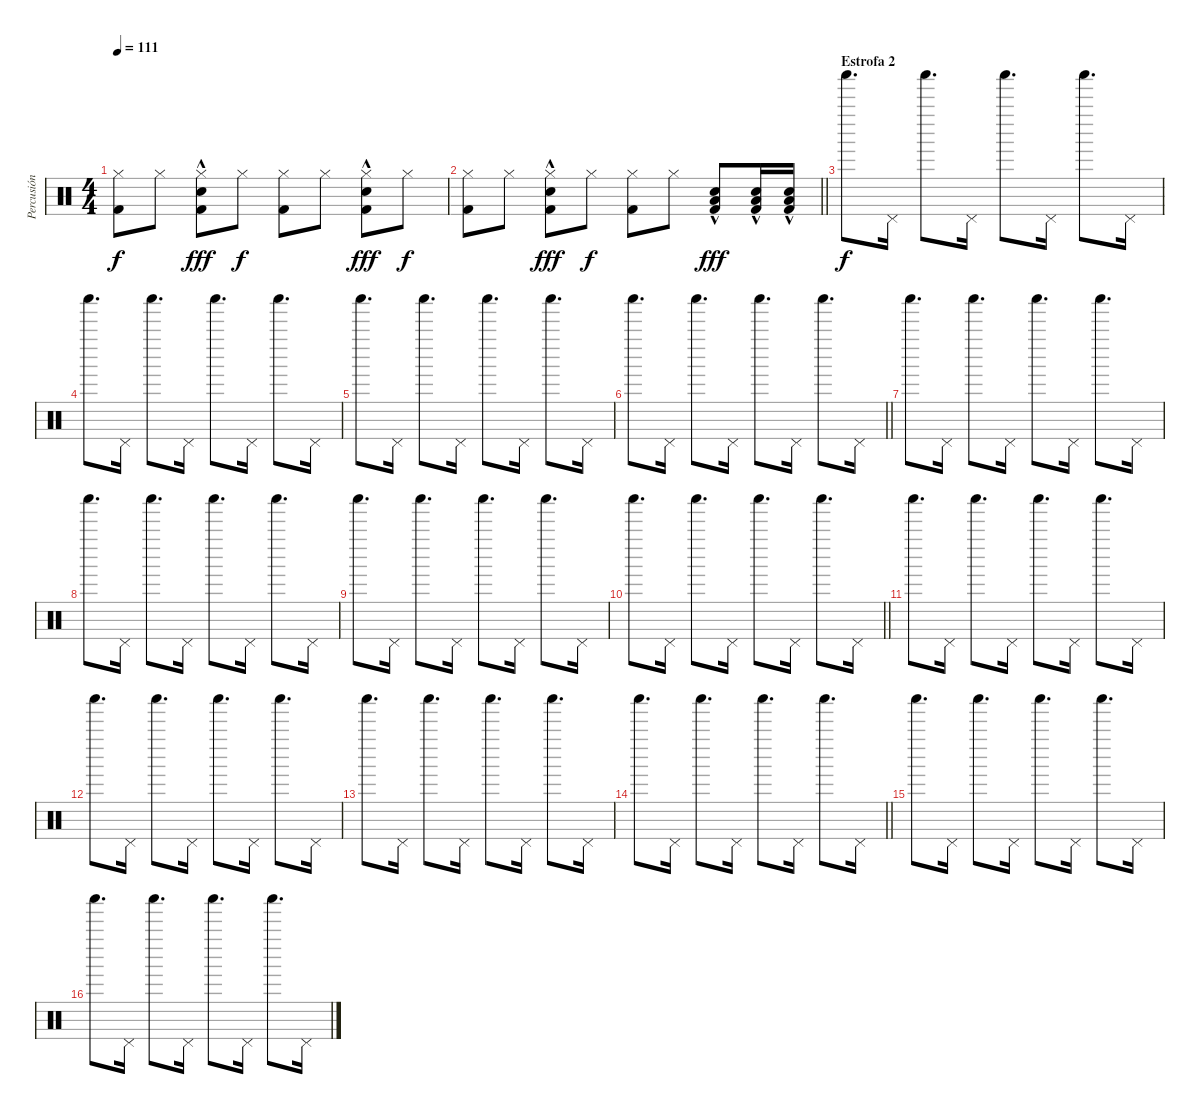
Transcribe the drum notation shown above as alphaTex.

\track ("Percusión" "Percusión") {instrument percussion}
\staff {score}
\articulation defaults
\ts (4 4)
\tempo 111
\clef neutral
\ks c
("Hi-Hat (closed)" "Kick (hit) 2").8{dy f} "Hi-Hat (closed)".8 ("Electric Snare (hit)"{hac} "Hi-Hat (closed)"{hac} "Kick (hit) 2"{hac}).8{dy fff} "Hi-Hat (closed)".8{dy f} ("Hi-Hat (closed)" "Kick (hit) 2").8 "Hi-Hat (closed)".8 ("Electric Snare (hit)"{hac} "Hi-Hat (closed)"{hac} "Kick (hit) 2"{hac}).8{dy fff} "Hi-Hat (closed)".8{dy f} |
\barLineRight lightlight
("Hi-Hat (closed)" "Kick (hit) 2").8 "Hi-Hat (closed)".8 ("Electric Snare (hit)"{hac} "Hi-Hat (closed)"{hac} "Kick (hit) 2"{hac}).8{dy fff} "Hi-Hat (closed)".8{dy f} ("Hi-Hat (closed)" "Kick (hit) 2").8 "Hi-Hat (closed)".8 ("Snare (hit) 2"{hac} "Low Floor Tom (hit)"{hac} "Kick (hit) 2"{hac}).8{dy fff} ("Snare (hit) 2"{hac} "Low Floor Tom (hit)"{hac} "Kick (hit) 2"{hac}).16 ("Snare (hit) 2"{hac} "Low Floor Tom (hit)"{hac} "Kick (hit) 2"{hac}).16 |
\section ("" "Estrofa 2")
"Shaker (hit)".8{d dy f} "Pedal Hi-Hat (hit)".16 "Shaker (hit)".8{d} "Pedal Hi-Hat (hit)".16 "Shaker (hit)".8{d} "Pedal Hi-Hat (hit)".16 "Shaker (hit)".8{d} "Pedal Hi-Hat (hit)".16 |
"Shaker (hit)".8{d} "Pedal Hi-Hat (hit)".16 "Shaker (hit)".8{d} "Pedal Hi-Hat (hit)".16 "Shaker (hit)".8{d} "Pedal Hi-Hat (hit)".16 "Shaker (hit)".8{d} "Pedal Hi-Hat (hit)".16 |
"Shaker (hit)".8{d} "Pedal Hi-Hat (hit)".16 "Shaker (hit)".8{d} "Pedal Hi-Hat (hit)".16 "Shaker (hit)".8{d} "Pedal Hi-Hat (hit)".16 "Shaker (hit)".8{d} "Pedal Hi-Hat (hit)".16 |
\barLineRight lightlight "Shaker (hit)".8{d} "Pedal Hi-Hat (hit)".16 "Shaker (hit)".8{d} "Pedal Hi-Hat (hit)".16 "Shaker (hit)".8{d} "Pedal Hi-Hat (hit)".16 "Shaker (hit)".8{d} "Pedal Hi-Hat (hit)".16
|
"Shaker (hit)".8{d} "Pedal Hi-Hat (hit)".16 "Shaker (hit)".8{d} "Pedal Hi-Hat (hit)".16 "Shaker (hit)".8{d} "Pedal Hi-Hat (hit)".16 "Shaker (hit)".8{d} "Pedal Hi-Hat (hit)".16 |
"Shaker (hit)".8{d} "Pedal Hi-Hat (hit)".16 "Shaker (hit)".8{d} "Pedal Hi-Hat (hit)".16 "Shaker (hit)".8{d} "Pedal Hi-Hat (hit)".16 "Shaker (hit)".8{d} "Pedal Hi-Hat (hit)".16 |
"Shaker (hit)".8{d} "Pedal Hi-Hat (hit)".16 "Shaker (hit)".8{d} "Pedal Hi-Hat (hit)".16 "Shaker (hit)".8{d} "Pedal Hi-Hat (hit)".16 "Shaker (hit)".8{d} "Pedal Hi-Hat (hit)".16 |
\barLineRight lightlight "Shaker (hit)".8{d} "Pedal Hi-Hat (hit)".16 "Shaker (hit)".8{d} "Pedal Hi-Hat (hit)".16 "Shaker (hit)".8{d} "Pedal Hi-Hat (hit)".16 "Shaker (hit)".8{d} "Pedal Hi-Hat (hit)".16
|
"Shaker (hit)".8{d} "Pedal Hi-Hat (hit)".16 "Shaker (hit)".8{d} "Pedal Hi-Hat (hit)".16 "Shaker (hit)".8{d} "Pedal Hi-Hat (hit)".16 "Shaker (hit)".8{d} "Pedal Hi-Hat (hit)".16 |
"Shaker (hit)".8{d} "Pedal Hi-Hat (hit)".16 "Shaker (hit)".8{d} "Pedal Hi-Hat (hit)".16 "Shaker (hit)".8{d} "Pedal Hi-Hat (hit)".16 "Shaker (hit)".8{d} "Pedal Hi-Hat (hit)".16 |
"Shaker (hit)".8{d} "Pedal Hi-Hat (hit)".16 "Shaker (hit)".8{d} "Pedal Hi-Hat (hit)".16 "Shaker (hit)".8{d} "Pedal Hi-Hat (hit)".16 "Shaker (hit)".8{d} "Pedal Hi-Hat (hit)".16 |
\barLineRight lightlight "Shaker (hit)".8{d} "Pedal Hi-Hat (hit)".16 "Shaker (hit)".8{d} "Pedal Hi-Hat (hit)".16 "Shaker (hit)".8{d} "Pedal Hi-Hat (hit)".16 "Shaker (hit)".8{d} "Pedal Hi-Hat (hit)".16
|
"Shaker (hit)".8{d} "Pedal Hi-Hat (hit)".16 "Shaker (hit)".8{d} "Pedal Hi-Hat (hit)".16 "Shaker (hit)".8{d} "Pedal Hi-Hat (hit)".16 "Shaker (hit)".8{d} "Pedal Hi-Hat (hit)".16 |
"Shaker (hit)".8{d} "Pedal Hi-Hat (hit)".16 "Shaker (hit)".8{d} "Pedal Hi-Hat (hit)".16 "Shaker (hit)".8{d} "Pedal Hi-Hat (hit)".16 "Shaker (hit)".8{d} "Pedal Hi-Hat (hit)".16
